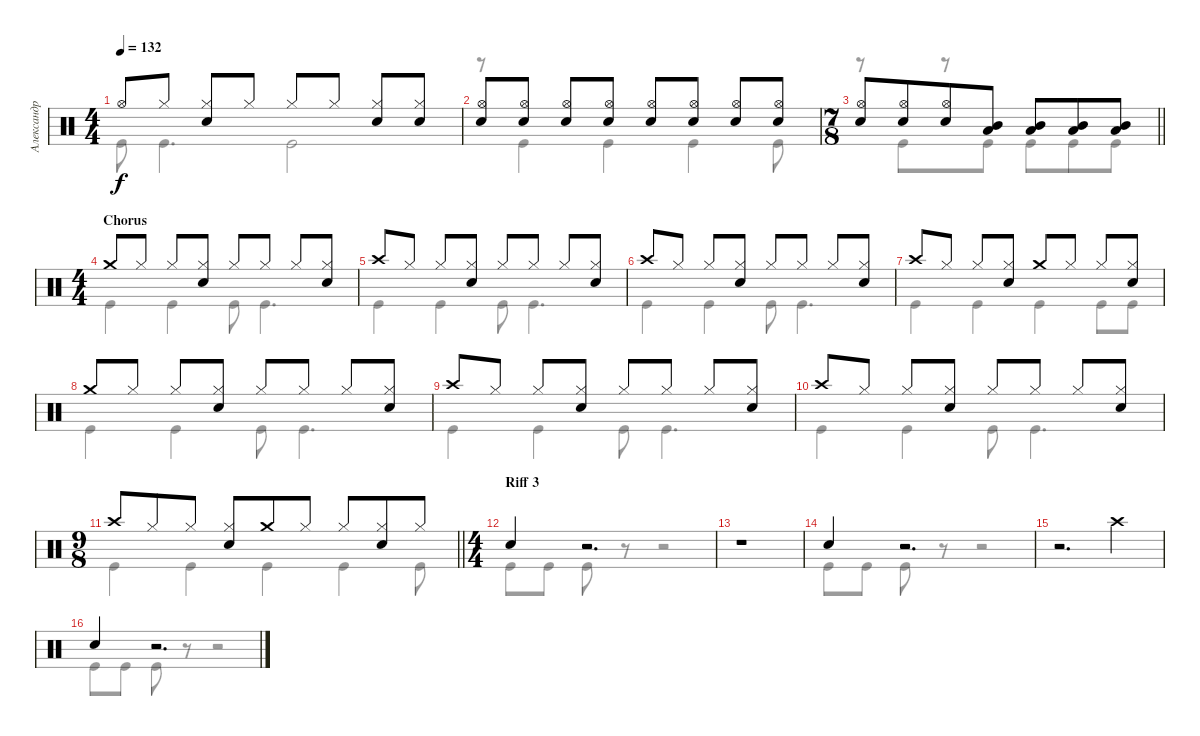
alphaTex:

\track ("Александр Манякин" "Александр ") {instrument percussion}
\staff {score}
\articulation defaults
\voice
\ts (4 4)
\tempo 132
\clef neutral
\ks c "Hi-Hat (open)"{t}.8{dy f} "Hi-Hat (closed)".8
("Hi-Hat (closed)" "Snare (hit) 2").8 "Hi-Hat (closed)".8 "Hi-Hat (closed)".8 "Hi-Hat (closed)".8 ("Hi-Hat (closed)" "Snare (hit) 2").8 ("Hi-Hat (closed)" "Snare (hit) 2").8 |
("Snare (hit) 2" "Hi-Hat (open)").8 ("Snare (hit) 2" "Hi-Hat (open)").8 ("Snare (hit) 2" "Hi-Hat (open)").8 ("Snare (hit) 2" "Hi-Hat (open)").8 ("Snare (hit) 2" "Hi-Hat (open)").8 ("Snare (hit) 2" "Hi-Hat (open)").8 ("Snare (hit) 2" "Hi-Hat (open)").8 ("Snare (hit) 2" "Hi-Hat (open)").8 |
\ts (7 8)
\barLineRight lightlight
("Snare (hit) 2" "Hi-Hat (open)").8 ("Snare (hit) 2" "Hi-Hat (open)").8 ("Hi-Hat (open)" "Snare (hit) 2").8 ("Low Tom (hit)" "Mid Tom (hit)").8 ("Low Tom (hit)" "Mid Tom (hit)").8 ("Low Tom (hit)" "Mid Tom (hit)").8 ("Low Tom (hit)" "Mid Tom (hit)").8 |
\ts (4 4)
\section ("" "Chorus")
"Crash medium (hit)".8 "Hi-Hat (closed)".8 "Hi-Hat (closed)".8 ("Hi-Hat (closed)" "Snare (hit) 2").8 "Hi-Hat (closed)".8 "Hi-Hat (closed)".8 "Hi-Hat (closed)".8 ("Hi-Hat (closed)" "Snare (hit) 2").8 |
"Crash high (hit)".8 "Hi-Hat (closed)".8 "Hi-Hat (closed)".8 ("Hi-Hat (closed)" "Snare (hit) 2").8 "Hi-Hat (closed)".8 "Hi-Hat (closed)".8 "Hi-Hat (closed)".8 ("Hi-Hat (closed)" "Snare (hit) 2").8 |
"Crash high (hit)".8 "Hi-Hat (closed)".8 "Hi-Hat (closed)".8 ("Hi-Hat (closed)" "Snare (hit) 2").8 "Hi-Hat (closed)".8 "Hi-Hat (closed)".8 "Hi-Hat (closed)".8 ("Hi-Hat (closed)" "Snare (hit) 2").8 |
"Crash high (hit)".8 "Hi-Hat (closed)".8 "Hi-Hat (closed)".8 ("Hi-Hat (closed)" "Snare (hit) 2").8 "Crash medium (hit)".8 "Hi-Hat (closed)".8 "Hi-Hat (closed)".8 ("Hi-Hat (closed)" "Snare (hit) 2").8 |
"Crash medium (hit)".8 "Hi-Hat (closed)".8 "Hi-Hat (closed)".8 ("Hi-Hat (closed)" "Snare (hit) 2").8 "Hi-Hat (closed)".8 "Hi-Hat (closed)".8 "Hi-Hat (closed)".8 ("Hi-Hat (closed)" "Snare (hit) 2").8 |
"Crash high (hit)".8 "Hi-Hat (closed)".8 "Hi-Hat (closed)".8 ("Hi-Hat (closed)" "Snare (hit) 2").8 "Hi-Hat (closed)".8 "Hi-Hat (closed)".8 "Hi-Hat (closed)".8 ("Hi-Hat (closed)" "Snare (hit) 2").8 |
"Crash high (hit)".8 "Hi-Hat (closed)".8 "Hi-Hat (closed)".8 ("Hi-Hat (closed)" "Snare (hit) 2").8 "Hi-Hat (closed)".8 "Hi-Hat (closed)".8 "Hi-Hat (closed)".8 ("Hi-Hat (closed)" "Snare (hit) 2").8 |
\ts (9 8)
\barLineRight lightlight "Crash high (hit)".8 "Hi-Hat (closed)".8 "Hi-Hat (closed)".8
("Hi-Hat (closed)" "Snare (hit) 2").8 "Crash medium (hit)".8 "Hi-Hat (closed)".8 "Hi-Hat (closed)".8 ("Hi-Hat (closed)" "Snare (hit) 2").8 "Hi-Hat (closed)".8 |
\ts (4 4)
\section ("" "Riff 3")
"Snare (hit) 2".4 r.2{d} |
r.1 |
"Snare (hit) 2".4 r.2{d} |
r.2{d} "Crash high (hit)".4 |
"Snare (hit) 2".4 r.2{d}
\voice
\clef neutral
\ottava regular
\simile none
\ks c "Kick (hit)"{t}.8{dy f} "Kick (hit)".4{d} "Kick (hit)".2
|
r.8 "Kick (hit)".4 "Kick (hit)".4 "Kick (hit)".4 "Kick (hit)".8 |
\barLineRight lightlight
r.8 "Kick (hit)".8 r.8 "Kick (hit)".8 "Kick (hit)".8 "Kick (hit)".8 "Kick (hit)".8 |
"Kick (hit)".4 "Kick (hit)".4 "Kick (hit)".8 "Kick (hit)".4{d} |
"Kick (hit)".4 "Kick (hit)".4 "Kick (hit)".8 "Kick (hit)".4{d} |
"Kick (hit)".4 "Kick (hit)".4 "Kick (hit)".8 "Kick (hit)".4{d} |
"Kick (hit)".4 "Kick (hit)".4 "Kick (hit)".4 "Kick (hit)".8 "Kick (hit)".8 |
"Kick (hit)".4 "Kick (hit)".4 "Kick (hit)".8 "Kick (hit)".4{d} |
"Kick (hit)".4 "Kick (hit)".4 "Kick (hit)".8 "Kick (hit)".4{d} |
"Kick (hit)".4 "Kick (hit)".4 "Kick (hit)".8 "Kick (hit)".4{d} |
\barLineRight lightlight "Kick (hit)".4 "Kick (hit)".4 "Kick (hit)".4 "Kick (hit)".4 "Kick (hit)".8
|
"Kick (hit)".8 "Kick (hit)".8 "Kick (hit)".8 r.8 r.2 |
|
"Kick (hit)".8 "Kick (hit)".8 "Kick (hit)".8 r.8 r.2 |
|
"Kick (hit)".8 "Kick (hit)".8 "Kick (hit)".8 r.8 r.2
